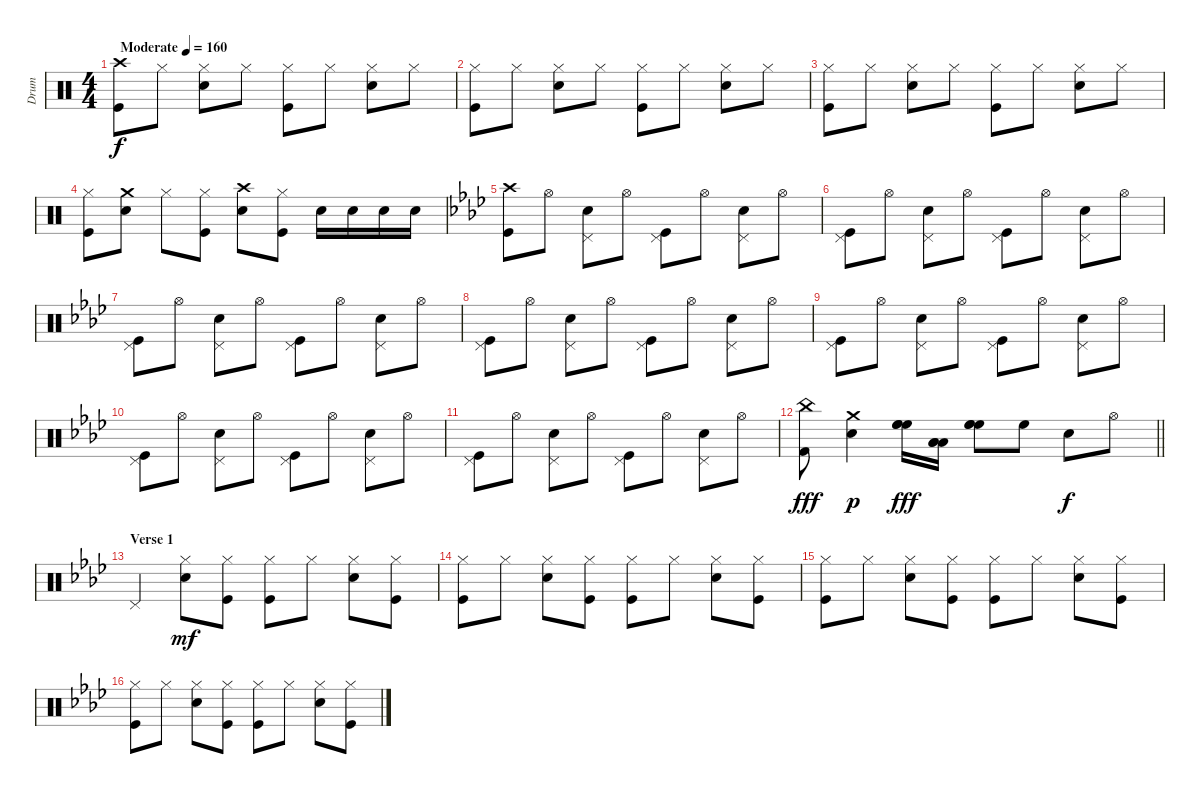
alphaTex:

\track ("Drum" "Drum") {instrument percussion}
\staff {score}
\articulation defaults
\ts (4 4)
\tempo (160 "Moderate")
\clef neutral
\ks c
("Crash high (hit)" "Kick (hit)").8{dy f} "Hi-Hat (closed)".8 ("Hi-Hat (closed)" "Electric Snare (hit)").8 "Hi-Hat (closed)".8 ("Hi-Hat (closed)" "Kick (hit)").8 "Hi-Hat (closed)".8 ("Hi-Hat (closed)" "Electric Snare (hit)").8 "Hi-Hat (closed)".8 |
("Hi-Hat (closed)" "Kick (hit)").8 "Hi-Hat (closed)".8 ("Hi-Hat (closed)" "Electric Snare (hit)").8 "Hi-Hat (closed)".8 ("Hi-Hat (closed)" "Kick (hit)").8 "Hi-Hat (closed)".8 ("Hi-Hat (closed)" "Electric Snare (hit)").8 "Hi-Hat (closed)".8 |
("Hi-Hat (closed)" "Kick (hit)").8 "Hi-Hat (closed)".8 ("Hi-Hat (closed)" "Electric Snare (hit)").8 "Hi-Hat (closed)".8 ("Hi-Hat (closed)" "Kick (hit)").8 "Hi-Hat (closed)".8 ("Hi-Hat (closed)" "Electric Snare (hit)").8 "Hi-Hat (closed)".8 |
("Hi-Hat (closed)" "Kick (hit)").8 ("Crash medium (hit)" "Electric Snare (hit)").8 "Hi-Hat (closed)".8 ("Hi-Hat (closed)" "Kick (hit)").8 ("Crash high (hit)" "Electric Snare (hit)").8 ("Hi-Hat (closed)" "Kick (hit)").8 "Electric Snare (hit)".16 "Electric Snare (hit)".16 "Electric Snare (hit)".16 "Electric Snare (hit)".16 |
\ks ab
("Crash high (hit)" "Kick (hit)").8 "Hi-Hat (open)".8 ("Pedal Hi-Hat (hit)" "Electric Snare (hit)").8 "Hi-Hat (open)".8 ("Pedal Hi-Hat (hit)" "Kick (hit)").8 "Hi-Hat (open)".8 ("Pedal Hi-Hat (hit)" "Electric Snare (hit)").8 "Hi-Hat (open)".8 |
("Pedal Hi-Hat (hit)" "Kick (hit)").8 "Hi-Hat (open)".8 ("Pedal Hi-Hat (hit)" "Electric Snare (hit)").8 "Hi-Hat (open)".8 ("Pedal Hi-Hat (hit)" "Kick (hit)").8 "Hi-Hat (open)".8 ("Pedal Hi-Hat (hit)" "Electric Snare (hit)").8 "Hi-Hat (open)".8 |
("Pedal Hi-Hat (hit)" "Kick (hit)").8 "Hi-Hat (open)".8 ("Pedal Hi-Hat (hit)" "Electric Snare (hit)").8 "Hi-Hat (open)".8 ("Pedal Hi-Hat (hit)" "Kick (hit)").8 "Hi-Hat (open)".8 ("Pedal Hi-Hat (hit)" "Electric Snare (hit)").8 "Hi-Hat (open)".8 |
("Pedal Hi-Hat (hit)" "Kick (hit)").8 "Hi-Hat (open)".8 ("Pedal Hi-Hat (hit)" "Electric Snare (hit)").8 "Hi-Hat (open)".8 ("Pedal Hi-Hat (hit)" "Kick (hit)").8 "Hi-Hat (open)".8 ("Pedal Hi-Hat (hit)" "Electric Snare (hit)").8 "Hi-Hat (open)".8 |
("Pedal Hi-Hat (hit)" "Kick (hit)").8 "Hi-Hat (open)".8 ("Pedal Hi-Hat (hit)" "Electric Snare (hit)").8 "Hi-Hat (open)".8 ("Pedal Hi-Hat (hit)" "Kick (hit)").8 "Hi-Hat (open)".8 ("Pedal Hi-Hat (hit)" "Electric Snare (hit)").8 "Hi-Hat (open)".8 |
("Pedal Hi-Hat (hit)" "Kick (hit)").8 "Hi-Hat (open)".8 ("Pedal Hi-Hat (hit)" "Electric Snare (hit)").8 "Hi-Hat (open)".8 ("Pedal Hi-Hat (hit)" "Kick (hit)").8 "Hi-Hat (open)".8 ("Pedal Hi-Hat (hit)" "Electric Snare (hit)").8 "Hi-Hat (open)".8 |
("Pedal Hi-Hat (hit)" "Kick (hit)").8 "Hi-Hat (open)".8 ("Pedal Hi-Hat (hit)" "Electric Snare (hit)").8 "Hi-Hat (open)".8 ("Pedal Hi-Hat (hit)" "Kick (hit)").8 "Hi-Hat (open)".8 ("Pedal Hi-Hat (hit)" "Electric Snare (hit)").8 "Hi-Hat (open)".8 |
\barLineRight lightlight
("China (hit)" "Kick (hit) 2").8{dy fff} ("Crash medium (hit)" "Electric Snare (hit)").4{dy p} ("High Floor Tom (hit)" "High Floor Tom (hit)" "High Floor Tom (hit)").16{dy fff} ("Low Tom (hit)" "Low Tom (hit)" "Low Tom (hit)").16 ("High Floor Tom (hit)" "High Floor Tom (hit)" "High Floor Tom (hit)").8 "High Floor Tom (hit)".8 "Electric Snare (hit)".8{dy f} "Hi-Hat (open)".8 |
\section ("" "Verse 1")
"Pedal Hi-Hat (hit)".4 ("Hi-Hat (closed)" "Electric Snare (hit)").8{dy mf} ("Hi-Hat (closed)" "Kick (hit)").8 ("Hi-Hat (closed)" "Kick (hit)").8 "Hi-Hat (closed)".8 ("Hi-Hat (closed)" "Electric Snare (hit)").8 ("Hi-Hat (closed)" "Kick (hit)").8 |
("Hi-Hat (closed)" "Kick (hit)").8 "Hi-Hat (closed)".8 ("Hi-Hat (closed)" "Electric Snare (hit)").8 ("Hi-Hat (closed)" "Kick (hit)").8 ("Hi-Hat (closed)" "Kick (hit)").8 "Hi-Hat (closed)".8 ("Hi-Hat (closed)" "Electric Snare (hit)").8 ("Hi-Hat (closed)" "Kick (hit)").8 |
("Hi-Hat (closed)" "Kick (hit)").8 "Hi-Hat (closed)".8 ("Hi-Hat (closed)" "Electric Snare (hit)").8 ("Hi-Hat (closed)" "Kick (hit)").8 ("Hi-Hat (closed)" "Kick (hit)").8 "Hi-Hat (closed)".8 ("Hi-Hat (closed)" "Electric Snare (hit)").8 ("Hi-Hat (closed)" "Kick (hit)").8 |
("Hi-Hat (closed)" "Kick (hit)").8 "Hi-Hat (closed)".8 ("Hi-Hat (closed)" "Electric Snare (hit)").8 ("Hi-Hat (closed)" "Kick (hit)").8 ("Hi-Hat (closed)" "Kick (hit)").8 "Hi-Hat (closed)".8 ("Hi-Hat (closed)" "Electric Snare (hit)").8 ("Hi-Hat (closed)" "Kick (hit)").8
